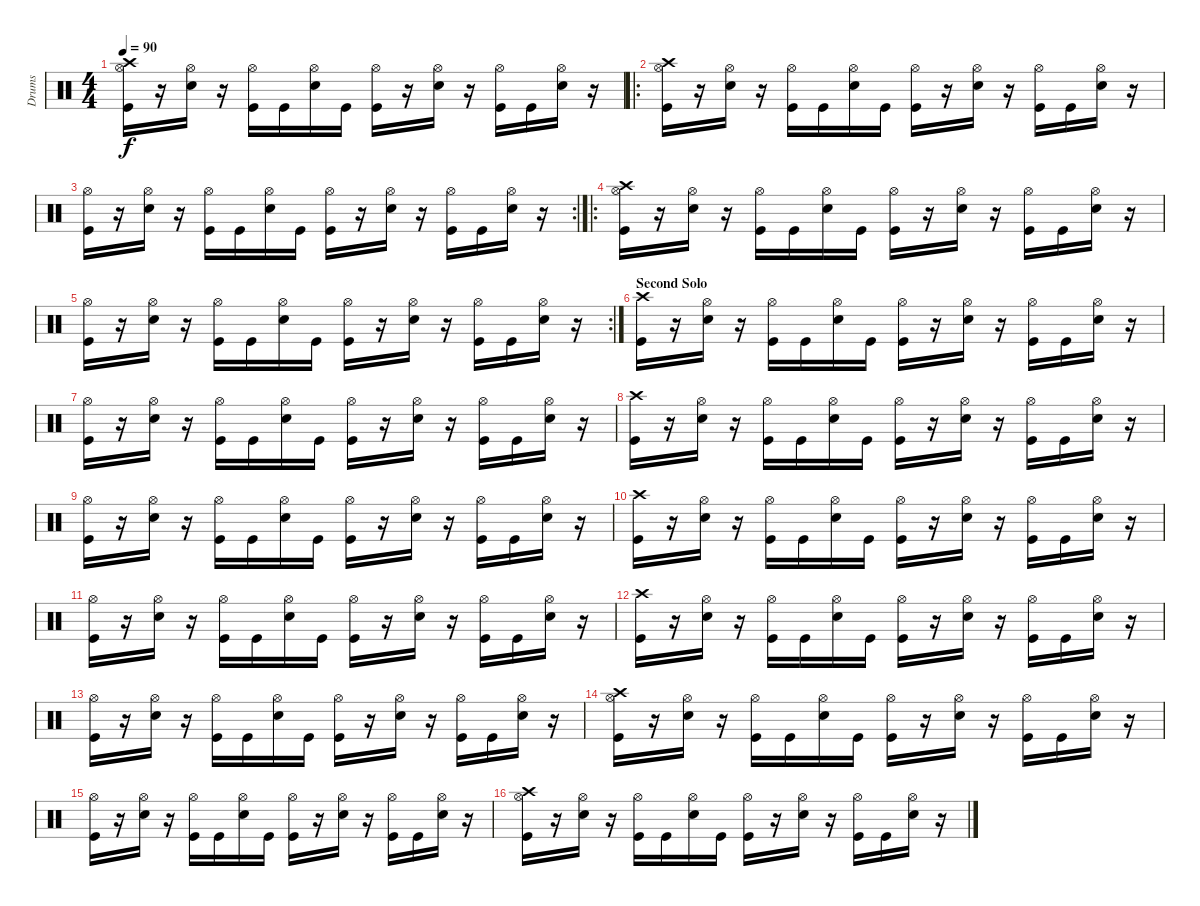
\track ("Drums" "Drums") {instrument percussion}
\staff {score}
\articulation defaults
\ts (4 4)
\tempo 90
\clef neutral
\ks c
("Crash high (hit)" "Hi-Hat (open)" "Kick (hit)").16{dy f} r.16 ("Hi-Hat (open)" "Electric Snare (hit)").16 r.16 ("Hi-Hat (open)" "Kick (hit)").16 "Kick (hit)".16 ("Hi-Hat (open)" "Electric Snare (hit)").16 "Kick (hit)".16 ("Hi-Hat (open)" "Kick (hit)").16 r.16 ("Hi-Hat (open)" "Electric Snare (hit)").16 r.16 ("Hi-Hat (open)" "Kick (hit)").16 "Kick (hit)".16 ("Hi-Hat (open)" "Electric Snare (hit)").16 r.16 |
\ro
("Crash high (hit)" "Hi-Hat (open)" "Kick (hit)").16 r.16 ("Hi-Hat (open)" "Electric Snare (hit)").16 r.16 ("Hi-Hat (open)" "Kick (hit)").16 "Kick (hit)".16 ("Hi-Hat (open)" "Electric Snare (hit)").16 "Kick (hit)".16 ("Hi-Hat (open)" "Kick (hit)").16 r.16 ("Hi-Hat (open)" "Electric Snare (hit)").16 r.16 ("Hi-Hat (open)" "Kick (hit)").16 "Kick (hit)".16 ("Hi-Hat (open)" "Electric Snare (hit)").16 r.16 |
\rc 2
("Hi-Hat (open)" "Kick (hit)").16 r.16 ("Hi-Hat (open)" "Electric Snare (hit)").16 r.16 ("Hi-Hat (open)" "Kick (hit)").16 "Kick (hit)".16 ("Hi-Hat (open)" "Electric Snare (hit)").16 "Kick (hit)".16 ("Hi-Hat (open)" "Kick (hit)").16 r.16 ("Hi-Hat (open)" "Electric Snare (hit)").16 r.16 ("Hi-Hat (open)" "Kick (hit)").16 "Kick (hit)".16 ("Hi-Hat (open)" "Electric Snare (hit)").16 r.16 |
\ro
("Crash high (hit)" "Hi-Hat (open)" "Kick (hit)").16 r.16 ("Hi-Hat (open)" "Electric Snare (hit)").16 r.16 ("Hi-Hat (open)" "Kick (hit)").16 "Kick (hit)".16 ("Hi-Hat (open)" "Electric Snare (hit)").16 "Kick (hit)".16 ("Hi-Hat (open)" "Kick (hit)").16 r.16 ("Hi-Hat (open)" "Electric Snare (hit)").16 r.16 ("Hi-Hat (open)" "Kick (hit)").16 "Kick (hit)".16 ("Hi-Hat (open)" "Electric Snare (hit)").16 r.16 |
\rc 2
("Hi-Hat (open)" "Kick (hit)").16 r.16 ("Hi-Hat (open)" "Electric Snare (hit)").16 r.16 ("Hi-Hat (open)" "Kick (hit)").16 "Kick (hit)".16 ("Hi-Hat (open)" "Electric Snare (hit)").16 "Kick (hit)".16 ("Hi-Hat (open)" "Kick (hit)").16 r.16 ("Hi-Hat (open)" "Electric Snare (hit)").16 r.16 ("Hi-Hat (open)" "Kick (hit)").16 "Kick (hit)".16 ("Hi-Hat (open)" "Electric Snare (hit)").16 r.16 |
\section ("" "Second Solo")
("Crash high (hit)" "Kick (hit)").16 r.16 ("Hi-Hat (open)" "Electric Snare (hit)").16 r.16 ("Hi-Hat (open)" "Kick (hit)").16 "Kick (hit)".16 ("Hi-Hat (open)" "Electric Snare (hit)").16 "Kick (hit)".16 ("Hi-Hat (open)" "Kick (hit)").16 r.16 ("Hi-Hat (open)" "Electric Snare (hit)").16 r.16 ("Hi-Hat (open)" "Kick (hit)").16 "Kick (hit)".16 ("Hi-Hat (open)" "Electric Snare (hit)").16 r.16 |
("Hi-Hat (open)" "Kick (hit)").16 r.16 ("Hi-Hat (open)" "Electric Snare (hit)").16 r.16 ("Hi-Hat (open)" "Kick (hit)").16 "Kick (hit)".16 ("Hi-Hat (open)" "Electric Snare (hit)").16 "Kick (hit)".16 ("Hi-Hat (open)" "Kick (hit)").16 r.16 ("Hi-Hat (open)" "Electric Snare (hit)").16 r.16 ("Hi-Hat (open)" "Kick (hit)").16 "Kick (hit)".16 ("Hi-Hat (open)" "Electric Snare (hit)").16 r.16 |
("Crash high (hit)" "Kick (hit)").16 r.16 ("Hi-Hat (open)" "Electric Snare (hit)").16 r.16 ("Hi-Hat (open)" "Kick (hit)").16 "Kick (hit)".16 ("Hi-Hat (open)" "Electric Snare (hit)").16 "Kick (hit)".16 ("Hi-Hat (open)" "Kick (hit)").16 r.16 ("Hi-Hat (open)" "Electric Snare (hit)").16 r.16 ("Hi-Hat (open)" "Kick (hit)").16 "Kick (hit)".16 ("Hi-Hat (open)" "Electric Snare (hit)").16 r.16 |
("Hi-Hat (open)" "Kick (hit)").16 r.16 ("Hi-Hat (open)" "Electric Snare (hit)").16 r.16 ("Hi-Hat (open)" "Kick (hit)").16 "Kick (hit)".16 ("Hi-Hat (open)" "Electric Snare (hit)").16 "Kick (hit)".16 ("Hi-Hat (open)" "Kick (hit)").16 r.16 ("Hi-Hat (open)" "Electric Snare (hit)").16 r.16 ("Hi-Hat (open)" "Kick (hit)").16 "Kick (hit)".16 ("Hi-Hat (open)" "Electric Snare (hit)").16 r.16 |
("Crash high (hit)" "Kick (hit)").16 r.16 ("Hi-Hat (open)" "Electric Snare (hit)").16 r.16 ("Hi-Hat (open)" "Kick (hit)").16 "Kick (hit)".16 ("Hi-Hat (open)" "Electric Snare (hit)").16 "Kick (hit)".16 ("Hi-Hat (open)" "Kick (hit)").16 r.16 ("Hi-Hat (open)" "Electric Snare (hit)").16 r.16 ("Hi-Hat (open)" "Kick (hit)").16 "Kick (hit)".16 ("Hi-Hat (open)" "Electric Snare (hit)").16 r.16 |
("Hi-Hat (open)" "Kick (hit)").16 r.16 ("Hi-Hat (open)" "Electric Snare (hit)").16 r.16 ("Hi-Hat (open)" "Kick (hit)").16 "Kick (hit)".16 ("Hi-Hat (open)" "Electric Snare (hit)").16 "Kick (hit)".16 ("Hi-Hat (open)" "Kick (hit)").16 r.16 ("Hi-Hat (open)" "Electric Snare (hit)").16 r.16 ("Hi-Hat (open)" "Kick (hit)").16 "Kick (hit)".16 ("Hi-Hat (open)" "Electric Snare (hit)").16 r.16 |
("Crash high (hit)" "Kick (hit)").16 r.16 ("Hi-Hat (open)" "Electric Snare (hit)").16 r.16 ("Hi-Hat (open)" "Kick (hit)").16 "Kick (hit)".16 ("Hi-Hat (open)" "Electric Snare (hit)").16 "Kick (hit)".16 ("Hi-Hat (open)" "Kick (hit)").16 r.16 ("Hi-Hat (open)" "Electric Snare (hit)").16 r.16 ("Hi-Hat (open)" "Kick (hit)").16 "Kick (hit)".16 ("Hi-Hat (open)" "Electric Snare (hit)").16 r.16 |
("Hi-Hat (open)" "Kick (hit)").16 r.16 ("Hi-Hat (open)" "Electric Snare (hit)").16 r.16 ("Hi-Hat (open)" "Kick (hit)").16 "Kick (hit)".16 ("Hi-Hat (open)" "Electric Snare (hit)").16 "Kick (hit)".16 ("Hi-Hat (open)" "Kick (hit)").16 r.16 ("Hi-Hat (open)" "Electric Snare (hit)").16 r.16 ("Hi-Hat (open)" "Kick (hit)").16 "Kick (hit)".16 ("Hi-Hat (open)" "Electric Snare (hit)").16 r.16 |
("Crash high (hit)" "Hi-Hat (open)" "Kick (hit)").16 r.16 ("Hi-Hat (open)" "Electric Snare (hit)").16 r.16 ("Hi-Hat (open)" "Kick (hit)").16 "Kick (hit)".16 ("Hi-Hat (open)" "Electric Snare (hit)").16 "Kick (hit)".16 ("Hi-Hat (open)" "Kick (hit)").16 r.16 ("Hi-Hat (open)" "Electric Snare (hit)").16 r.16 ("Hi-Hat (open)" "Kick (hit)").16 "Kick (hit)".16 ("Hi-Hat (open)" "Electric Snare (hit)").16 r.16 |
("Hi-Hat (open)" "Kick (hit)").16 r.16 ("Hi-Hat (open)" "Electric Snare (hit)").16 r.16 ("Hi-Hat (open)" "Kick (hit)").16 "Kick (hit)".16 ("Hi-Hat (open)" "Electric Snare (hit)").16 "Kick (hit)".16 ("Hi-Hat (open)" "Kick (hit)").16 r.16 ("Hi-Hat (open)" "Electric Snare (hit)").16 r.16 ("Hi-Hat (open)" "Kick (hit)").16 "Kick (hit)".16 ("Hi-Hat (open)" "Electric Snare (hit)").16 r.16 |
("Crash high (hit)" "Hi-Hat (open)" "Kick (hit)").16 r.16 ("Hi-Hat (open)" "Electric Snare (hit)").16 r.16 ("Hi-Hat (open)" "Kick (hit)").16 "Kick (hit)".16 ("Hi-Hat (open)" "Electric Snare (hit)").16 "Kick (hit)".16 ("Hi-Hat (open)" "Kick (hit)").16 r.16 ("Hi-Hat (open)" "Electric Snare (hit)").16 r.16 ("Hi-Hat (open)" "Kick (hit)").16 "Kick (hit)".16 ("Hi-Hat (open)" "Electric Snare (hit)").16 r.16
